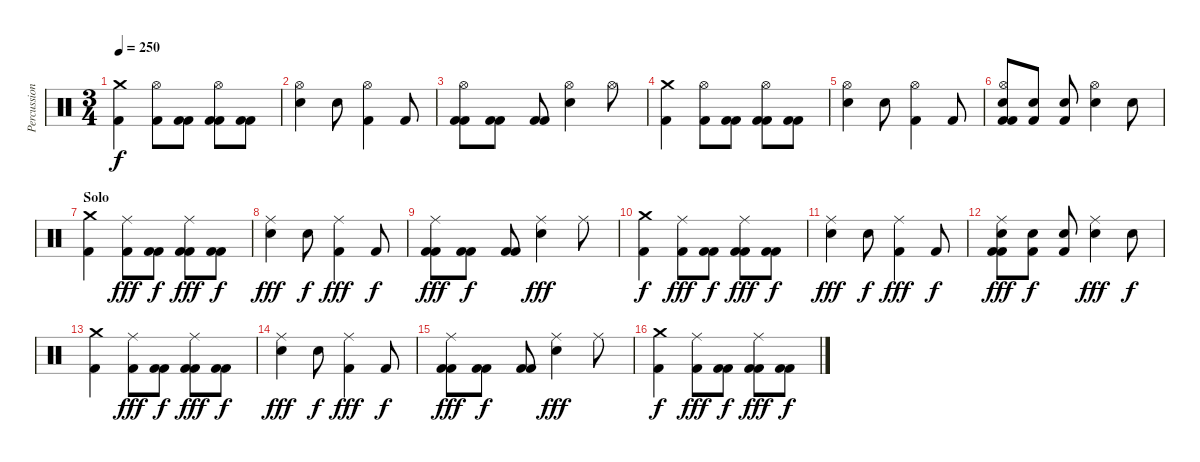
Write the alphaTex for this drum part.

\track ("Percussion" "Percussion") {instrument percussion}
\staff {score}
\articulation defaults
\ts (3 4)
\tempo 250
\clef neutral
\ks c
("Crash medium (hit)" "Kick (hit) 2").4{dy f} ("Hi-Hat (open)" "Kick (hit) 2").8 ("Kick (hit) 2" "Kick (hit) 2").8 ("Hi-Hat (open)" "Kick (hit) 2" "Kick (hit) 2").8 ("Kick (hit) 2" "Kick (hit) 2").8 |
("Snare (hit) 2" "Hi-Hat (open)").4 "Snare (hit) 2".8 ("Hi-Hat (open)" "Kick (hit) 2").4 "Kick (hit) 2".8 |
("Hi-Hat (open)" "Kick (hit) 2" "Kick (hit) 2").8 ("Kick (hit) 2" "Kick (hit) 2").8 ("Kick (hit) 2" "Kick (hit) 2").8 ("Snare (hit) 2" "Hi-Hat (open)").4 "Hi-Hat (open)".8 |
("Crash medium (hit)" "Kick (hit) 2").4 ("Hi-Hat (open)" "Kick (hit) 2").8 ("Kick (hit) 2" "Kick (hit) 2").8 ("Hi-Hat (open)" "Kick (hit) 2" "Kick (hit) 2").8 ("Kick (hit) 2" "Kick (hit) 2").8 |
("Snare (hit) 2" "Hi-Hat (open)").4 "Snare (hit) 2".8 ("Hi-Hat (open)" "Kick (hit) 2").4 "Kick (hit) 2".8 |
("Hi-Hat (open)" "Snare (hit) 2" "Kick (hit) 2" "Kick (hit) 2").8 ("Snare (hit) 2" "Kick (hit) 2").8 ("Snare (hit) 2" "Kick (hit) 2").8 ("Snare (hit) 2" "Hi-Hat (open)").4 "Snare (hit) 2".8 |
\section ("" "Solo")
("Crash medium (hit)" "Kick (hit) 2").4 ("Ride (middle)" "Kick (hit) 2").8{dy fff} ("Kick (hit) 2" "Kick (hit) 2").8{dy f} ("Ride (middle)" "Kick (hit) 2" "Kick (hit) 2").8{dy fff} ("Kick (hit) 2" "Kick (hit) 2").8{dy f} |
("Snare (hit) 2" "Ride (middle)").4{dy fff} "Snare (hit) 2".8{dy f} ("Ride (middle)" "Kick (hit) 2").4{dy fff} "Kick (hit) 2".8{dy f} |
("Ride (middle)" "Kick (hit) 2" "Kick (hit) 2").8{dy fff} ("Kick (hit) 2" "Kick (hit) 2").8{dy f} ("Kick (hit) 2" "Kick (hit) 2").8 ("Snare (hit) 2" "Ride (middle)").4{dy fff} "Ride (middle)".8 |
("Crash medium (hit)" "Kick (hit) 2").4{dy f} ("Ride (middle)" "Kick (hit) 2").8{dy fff} ("Kick (hit) 2" "Kick (hit) 2").8{dy f} ("Ride (middle)" "Kick (hit) 2" "Kick (hit) 2").8{dy fff} ("Kick (hit) 2" "Kick (hit) 2").8{dy f} |
("Snare (hit) 2" "Ride (middle)").4{dy fff} "Snare (hit) 2".8{dy f} ("Ride (middle)" "Kick (hit) 2").4{dy fff} "Kick (hit) 2".8{dy f} |
("Ride (middle)" "Snare (hit) 2" "Kick (hit) 2" "Kick (hit) 2").8{dy fff} ("Snare (hit) 2" "Kick (hit) 2").8{dy f} ("Snare (hit) 2" "Kick (hit) 2").8 ("Snare (hit) 2" "Ride (middle)").4{dy fff} "Snare (hit) 2".8{dy f} |
("Crash medium (hit)" "Kick (hit) 2").4 ("Ride (middle)" "Kick (hit) 2").8{dy fff} ("Kick (hit) 2" "Kick (hit) 2").8{dy f} ("Ride (middle)" "Kick (hit) 2" "Kick (hit) 2").8{dy fff} ("Kick (hit) 2" "Kick (hit) 2").8{dy f} |
("Snare (hit) 2" "Ride (middle)").4{dy fff} "Snare (hit) 2".8{dy f} ("Ride (middle)" "Kick (hit) 2").4{dy fff} "Kick (hit) 2".8{dy f} |
("Ride (middle)" "Kick (hit) 2" "Kick (hit) 2").8{dy fff} ("Kick (hit) 2" "Kick (hit) 2").8{dy f} ("Kick (hit) 2" "Kick (hit) 2").8 ("Snare (hit) 2" "Ride (middle)").4{dy fff} "Ride (middle)".8 |
("Crash medium (hit)" "Kick (hit) 2").4{dy f} ("Ride (middle)" "Kick (hit) 2").8{dy fff} ("Kick (hit) 2" "Kick (hit) 2").8{dy f} ("Ride (middle)" "Kick (hit) 2" "Kick (hit) 2").8{dy fff} ("Kick (hit) 2" "Kick (hit) 2").8{dy f}
